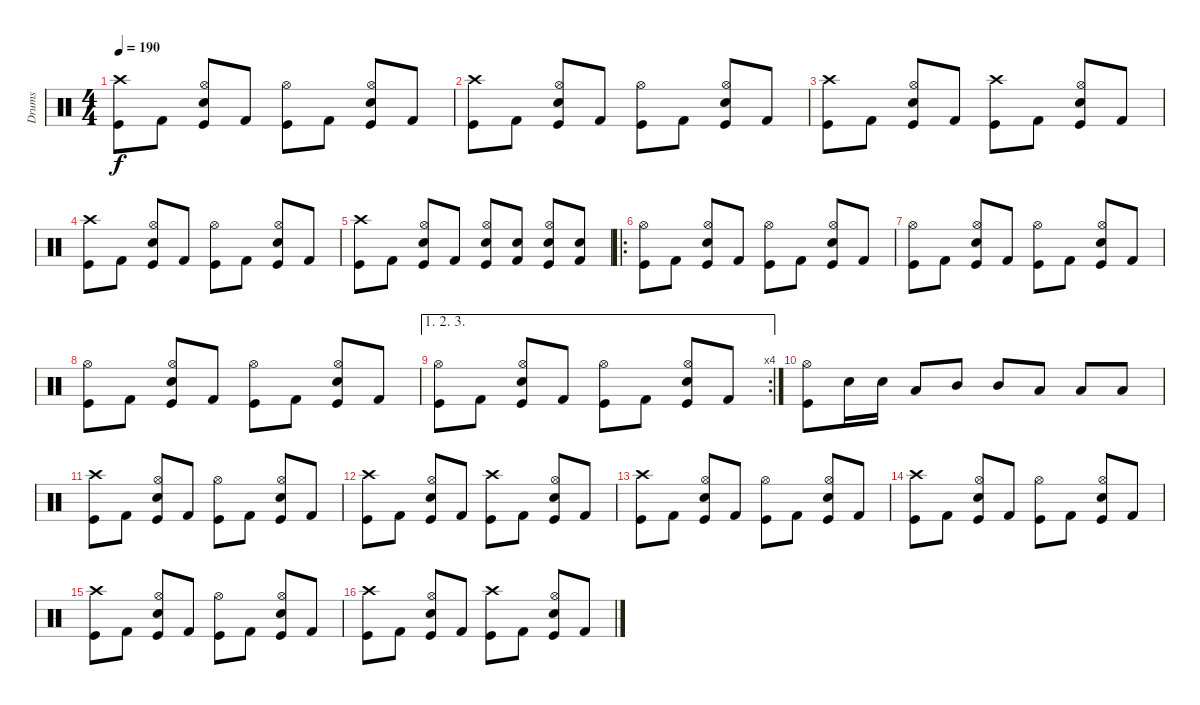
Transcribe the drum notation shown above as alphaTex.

\track ("Drums" "Drums") {instrument percussion}
\staff {score}
\articulation defaults
\ts (4 4)
\tempo 190
\clef neutral
\ks c
("Crash high (hit)" "Kick (hit)").8{dy f} "Kick (hit) 2".8 ("Hi-Hat (open)" "Snare (hit) 2" "Kick (hit)").8 "Kick (hit) 2".8 ("Hi-Hat (open)" "Kick (hit)").8 "Kick (hit) 2".8 ("Hi-Hat (open)" "Snare (hit) 2" "Kick (hit)").8 "Kick (hit) 2".8 |
("Crash high (hit)" "Kick (hit)").8 "Kick (hit) 2".8 ("Hi-Hat (open)" "Snare (hit) 2" "Kick (hit)").8 "Kick (hit) 2".8 ("Hi-Hat (open)" "Kick (hit)").8 "Kick (hit) 2".8 ("Hi-Hat (open)" "Snare (hit) 2" "Kick (hit)").8 "Kick (hit) 2".8 |
("Crash high (hit)" "Kick (hit)").8 "Kick (hit) 2".8 ("Hi-Hat (open)" "Snare (hit) 2" "Kick (hit)").8 "Kick (hit) 2".8 ("Crash high (hit)" "Kick (hit)").8 "Kick (hit) 2".8 ("Hi-Hat (open)" "Snare (hit) 2" "Kick (hit)").8 "Kick (hit) 2".8 |
("Crash high (hit)" "Kick (hit)").8 "Kick (hit) 2".8 ("Hi-Hat (open)" "Snare (hit) 2" "Kick (hit)").8 "Kick (hit) 2".8 ("Hi-Hat (open)" "Kick (hit)").8 "Kick (hit) 2".8 ("Hi-Hat (open)" "Snare (hit) 2" "Kick (hit)").8 "Kick (hit) 2".8 |
("Crash high (hit)" "Kick (hit)").8 "Kick (hit) 2".8 ("Hi-Hat (open)" "Snare (hit) 2" "Kick (hit)").8 "Kick (hit) 2".8 ("Hi-Hat (open)" "Snare (hit) 2" "Kick (hit)").8 ("Snare (hit) 2" "Kick (hit) 2").8 ("Hi-Hat (open)" "Snare (hit) 2" "Kick (hit)").8 ("Snare (hit) 2" "Kick (hit) 2").8 |
\ro
("Hi-Hat (open)" "Kick (hit)").8 "Kick (hit) 2".8 ("Hi-Hat (open)" "Snare (hit) 2" "Kick (hit)").8 "Kick (hit) 2".8 ("Hi-Hat (open)" "Kick (hit)").8 "Kick (hit) 2".8 ("Hi-Hat (open)" "Snare (hit) 2" "Kick (hit)").8 "Kick (hit) 2".8 |
("Hi-Hat (open)" "Kick (hit)").8 "Kick (hit) 2".8 ("Hi-Hat (open)" "Snare (hit) 2" "Kick (hit)").8 "Kick (hit) 2".8 ("Hi-Hat (open)" "Kick (hit)").8 "Kick (hit) 2".8 ("Hi-Hat (open)" "Snare (hit) 2" "Kick (hit)").8 "Kick (hit) 2".8 |
("Hi-Hat (open)" "Kick (hit)").8 "Kick (hit) 2".8 ("Hi-Hat (open)" "Snare (hit) 2" "Kick (hit)").8 "Kick (hit) 2".8 ("Hi-Hat (open)" "Kick (hit)").8 "Kick (hit) 2".8 ("Hi-Hat (open)" "Snare (hit) 2" "Kick (hit)").8 "Kick (hit) 2".8 |
\ae (1 2 3)
\rc 4
("Hi-Hat (open)" "Kick (hit)").8 "Kick (hit) 2".8 ("Hi-Hat (open)" "Snare (hit) 2" "Kick (hit)").8 "Kick (hit) 2".8 ("Hi-Hat (open)" "Kick (hit)").8 "Kick (hit) 2".8 ("Hi-Hat (open)" "Snare (hit) 2" "Kick (hit)").8 "Kick (hit) 2".8 |
("Hi-Hat (open)" "Kick (hit)").8 "Snare (hit) 2".16 "Snare (hit) 2".16 "Low Tom (hit)".8 "Mid Tom (hit)".8 "Mid Tom (hit)".8 "Low Floor Tom (hit)".8 "Low Floor Tom (hit)".8 "Low Floor Tom (hit)".8 |
("Crash high (hit)" "Kick (hit)").8 "Kick (hit) 2".8 ("Hi-Hat (open)" "Snare (hit) 2" "Kick (hit)").8 "Kick (hit) 2".8 ("Hi-Hat (open)" "Kick (hit)").8 "Kick (hit) 2".8 ("Hi-Hat (open)" "Snare (hit) 2" "Kick (hit)").8 "Kick (hit) 2".8 |
("Crash high (hit)" "Kick (hit)").8 "Kick (hit) 2".8 ("Hi-Hat (open)" "Snare (hit) 2" "Kick (hit)").8 "Kick (hit) 2".8 ("Crash high (hit)" "Kick (hit)").8 "Kick (hit) 2".8 ("Hi-Hat (open)" "Snare (hit) 2" "Kick (hit)").8 "Kick (hit) 2".8 |
("Crash high (hit)" "Kick (hit)").8 "Kick (hit) 2".8 ("Hi-Hat (open)" "Snare (hit) 2" "Kick (hit)").8 "Kick (hit) 2".8 ("Hi-Hat (open)" "Kick (hit)").8 "Kick (hit) 2".8 ("Hi-Hat (open)" "Snare (hit) 2" "Kick (hit)").8 "Kick (hit) 2".8 |
("Crash high (hit)" "Kick (hit)").8 "Kick (hit) 2".8 ("Hi-Hat (open)" "Snare (hit) 2" "Kick (hit)").8 "Kick (hit) 2".8 ("Hi-Hat (open)" "Kick (hit)").8 "Kick (hit) 2".8 ("Hi-Hat (open)" "Snare (hit) 2" "Kick (hit)").8 "Kick (hit) 2".8 |
("Crash high (hit)" "Kick (hit)").8 "Kick (hit) 2".8 ("Hi-Hat (open)" "Snare (hit) 2" "Kick (hit)").8 "Kick (hit) 2".8 ("Hi-Hat (open)" "Kick (hit)").8 "Kick (hit) 2".8 ("Hi-Hat (open)" "Snare (hit) 2" "Kick (hit)").8 "Kick (hit) 2".8 |
("Crash high (hit)" "Kick (hit)").8 "Kick (hit) 2".8 ("Hi-Hat (open)" "Snare (hit) 2" "Kick (hit)").8 "Kick (hit) 2".8 ("Crash high (hit)" "Kick (hit)").8 "Kick (hit) 2".8 ("Hi-Hat (open)" "Snare (hit) 2" "Kick (hit)").8 "Kick (hit) 2".8
